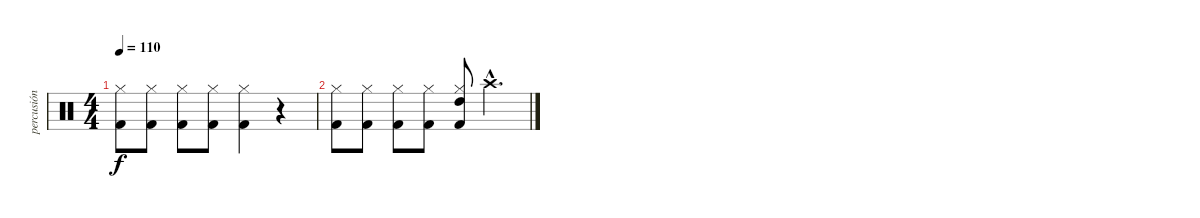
\track ("percusión" "percusión") {instrument percussion}
\staff {score}
\articulation defaults
\ts (4 4)
\tempo 110
\clef neutral
\ks c
("Kick (hit) 2" "Hi-Hat (closed)").8{dy f} ("Kick (hit) 2" "Hi-Hat (closed)").8 ("Kick (hit) 2" "Hi-Hat (closed)").8 ("Kick (hit) 2" "Hi-Hat (closed)").8 ("Kick (hit) 2" "Hi-Hat (closed)").4 r.4 |
("Kick (hit) 2" "Hi-Hat (closed)").8 ("Kick (hit) 2" "Hi-Hat (closed)").8 ("Kick (hit) 2" "Hi-Hat (closed)").8 ("Kick (hit) 2" "Hi-Hat (closed)").8 ("Kick (hit) 2" "Hi-Hat (closed)" "High Tom (hit)").8 "Crash high (hit)"{hac}.4{d}
